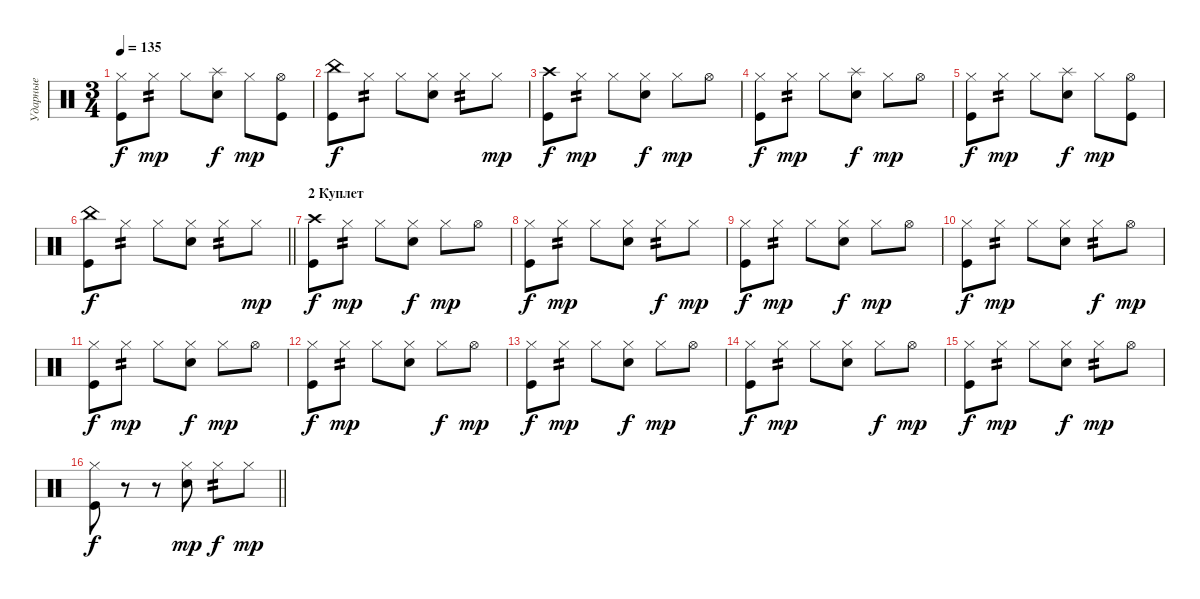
\track ("Ударные" "Ударные") {instrument percussion}
\staff {score}
\articulation defaults
\ts (3 4)
\tempo 135
\clef neutral
\ks c
("Hi-Hat (closed)" "Kick (hit)").8{dy f} "Hi-Hat (closed)".8{tp 2 dy mp} "Hi-Hat (closed)".8 ("Splash (hit)" "Snare (hit) 2").8{dy f} "Hi-Hat (closed)".8{dy mp} ("Hi-Hat (open)" "Kick (hit)").8 |
("China (hit)" "Kick (hit)").8{dy f} "Hi-Hat (closed)".8{tp 2} "Hi-Hat (closed)".8 ("Hi-Hat (closed)" "Snare (hit) 2").8 "Hi-Hat (closed)".8{tp 2} "Hi-Hat (closed)".8{dy mp} |
("Crash high (hit)" "Kick (hit)").8{dy f} "Hi-Hat (closed)".8{tp 2 dy mp} "Hi-Hat (closed)".8 ("Hi-Hat (closed)" "Snare (hit) 2").8{dy f} "Hi-Hat (closed)".8{dy mp} "Hi-Hat (open)".8 |
("Hi-Hat (closed)" "Kick (hit)").8{dy f} "Hi-Hat (closed)".8{tp 2 dy mp} "Hi-Hat (closed)".8 ("Splash (hit)" "Snare (hit) 2").8{dy f} "Hi-Hat (closed)".8{dy mp} "Hi-Hat (open)".8 |
("Hi-Hat (closed)" "Kick (hit)").8{dy f} "Hi-Hat (closed)".8{tp 2 dy mp} "Hi-Hat (closed)".8 ("Splash (hit)" "Snare (hit) 2").8{dy f} "Hi-Hat (closed)".8{dy mp} ("Hi-Hat (open)" "Kick (hit)").8 |
\barLineRight lightlight
("China (hit)" "Kick (hit)").8{dy f} "Hi-Hat (closed)".8{tp 2} "Hi-Hat (closed)".8 ("Hi-Hat (closed)" "Snare (hit) 2").8 "Hi-Hat (closed)".8{tp 2} "Hi-Hat (closed)".8{dy mp} |
\section ("" "2 Куплет")
("Crash high (hit)" "Kick (hit)").8{dy f} "Hi-Hat (closed)".8{tp 2 dy mp} "Hi-Hat (closed)".8 ("Hi-Hat (closed)" "Snare (hit) 2").8{dy f} "Hi-Hat (closed)".8{dy mp} "Hi-Hat (open)".8 |
("Hi-Hat (closed)" "Kick (hit)").8{dy f} "Hi-Hat (closed)".8{tp 2 dy mp} "Hi-Hat (closed)".8 ("Hi-Hat (closed)" "Snare (hit) 2").8 "Hi-Hat (closed)".8{tp 2 dy f} "Hi-Hat (closed)".8{dy mp} |
("Hi-Hat (closed)" "Kick (hit)").8{dy f} "Hi-Hat (closed)".8{tp 2 dy mp} "Hi-Hat (closed)".8 ("Hi-Hat (closed)" "Snare (hit) 2").8{dy f} "Hi-Hat (closed)".8{dy mp} "Hi-Hat (open)".8 |
("Hi-Hat (closed)" "Kick (hit)").8{dy f} "Hi-Hat (closed)".8{tp 2 dy mp} "Hi-Hat (closed)".8 ("Hi-Hat (closed)" "Snare (hit) 2").8 "Hi-Hat (closed)".8{tp 2 dy f} "Hi-Hat (open)".8{dy mp} |
("Hi-Hat (closed)" "Kick (hit)").8{dy f} "Hi-Hat (closed)".8{tp 2 dy mp} "Hi-Hat (closed)".8 ("Hi-Hat (closed)" "Snare (hit) 2").8{dy f} "Hi-Hat (closed)".8{dy mp} "Hi-Hat (open)".8 |
("Hi-Hat (closed)" "Kick (hit)").8{dy f} "Hi-Hat (closed)".8{tp 2 dy mp} "Hi-Hat (closed)".8 ("Hi-Hat (closed)" "Snare (hit) 2").8 "Hi-Hat (closed)".8{dy f} "Hi-Hat (open)".8{dy mp} |
("Hi-Hat (closed)" "Kick (hit)").8{dy f} "Hi-Hat (closed)".8{tp 2 dy mp} "Hi-Hat (closed)".8 ("Hi-Hat (closed)" "Snare (hit) 2").8{dy f} "Hi-Hat (closed)".8{dy mp} "Hi-Hat (open)".8 |
("Hi-Hat (closed)" "Kick (hit)").8{dy f} "Hi-Hat (closed)".8{tp 2 dy mp} "Hi-Hat (closed)".8 ("Hi-Hat (closed)" "Snare (hit) 2").8 "Hi-Hat (closed)".8{dy f} "Hi-Hat (open)".8{dy mp} |
("Hi-Hat (closed)" "Kick (hit)").8{dy f} "Hi-Hat (closed)".8{tp 2 dy mp} "Hi-Hat (closed)".8 ("Hi-Hat (closed)" "Snare (hit) 2").8{dy f} "Hi-Hat (closed)".8{tp 2 dy mp} "Hi-Hat (open)".8 |
\barLineRight lightlight
("Hi-Hat (closed)" "Kick (hit)").8{dy f} r.8 r.8 ("Hi-Hat (closed)" "Snare (hit) 2").8{dy mp} "Hi-Hat (closed)".8{tp 2 dy f} "Hi-Hat (closed)".8{dy mp}
